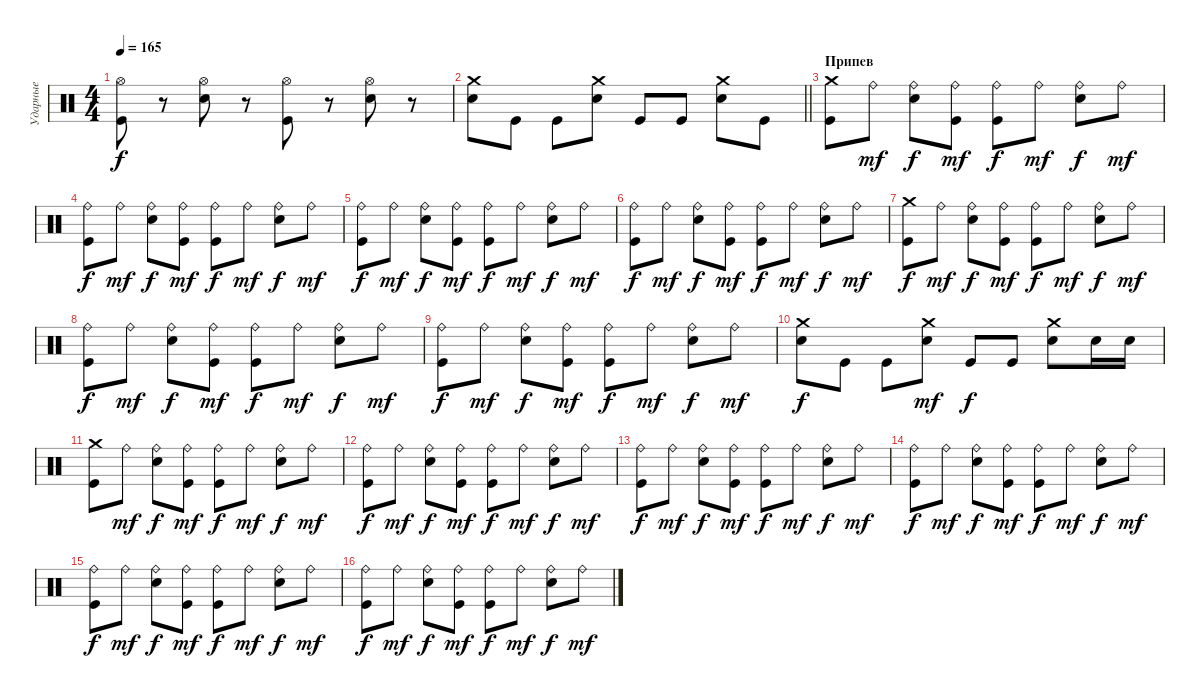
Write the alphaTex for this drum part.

\track ("Ударные" "Ударные") {instrument percussion}
\staff {score}
\articulation defaults
\ts (4 4)
\tempo 165
\clef neutral
\ks c
("Hi-Hat (open)" "Kick (hit)").8{dy f} r.8 ("Hi-Hat (open)" "Electric Snare (hit)").8 r.8 ("Hi-Hat (open)" "Kick (hit)").8 r.8 ("Hi-Hat (open)" "Electric Snare (hit)").8 r.8 |
\barLineRight lightlight
("Crash medium (hit)" "Electric Snare (hit)").8 "Kick (hit)".8 "Kick (hit)".8 ("Crash medium (hit)" "Electric Snare (hit)").8 "Kick (hit)".8 "Kick (hit)".8 ("Crash medium (hit)" "Electric Snare (hit)").8 "Kick (hit)".8 |
\section ("" "Припев")
("Crash medium (hit)" "Kick (hit)").8 "Ride (bell)".8{dy mf} ("Ride (bell)" "Electric Snare (hit)").8{dy f} ("Ride (bell)" "Kick (hit)").8{dy mf} ("Ride (bell)" "Kick (hit)").8{dy f} "Ride (bell)".8{dy mf} ("Ride (bell)" "Electric Snare (hit)").8{dy f} "Ride (bell)".8{dy mf} |
("Ride (bell)" "Kick (hit)").8{dy f} "Ride (bell)".8{dy mf} ("Ride (bell)" "Electric Snare (hit)").8{dy f} ("Ride (bell)" "Kick (hit)").8{dy mf} ("Ride (bell)" "Kick (hit)").8{dy f} "Ride (bell)".8{dy mf} ("Ride (bell)" "Electric Snare (hit)").8{dy f} "Ride (bell)".8{dy mf} |
("Ride (bell)" "Kick (hit)").8{dy f} "Ride (bell)".8{dy mf} ("Ride (bell)" "Electric Snare (hit)").8{dy f} ("Ride (bell)" "Kick (hit)").8{dy mf} ("Ride (bell)" "Kick (hit)").8{dy f} "Ride (bell)".8{dy mf} ("Ride (bell)" "Electric Snare (hit)").8{dy f} "Ride (bell)".8{dy mf} |
("Ride (bell)" "Kick (hit)").8{dy f} "Ride (bell)".8{dy mf} ("Ride (bell)" "Electric Snare (hit)").8{dy f} ("Ride (bell)" "Kick (hit)").8{dy mf} ("Ride (bell)" "Kick (hit)").8{dy f} "Ride (bell)".8{dy mf} ("Ride (bell)" "Electric Snare (hit)").8{dy f} "Ride (bell)".8{dy mf} |
("Crash medium (hit)" "Kick (hit)").8{dy f} "Ride (bell)".8{dy mf} ("Ride (bell)" "Electric Snare (hit)").8{dy f} ("Ride (bell)" "Kick (hit)").8{dy mf} ("Ride (bell)" "Kick (hit)").8{dy f} "Ride (bell)".8{dy mf} ("Ride (bell)" "Electric Snare (hit)").8{dy f} "Ride (bell)".8{dy mf} |
("Ride (bell)" "Kick (hit)").8{dy f} "Ride (bell)".8{dy mf} ("Ride (bell)" "Electric Snare (hit)").8{dy f} ("Ride (bell)" "Kick (hit)").8{dy mf} ("Ride (bell)" "Kick (hit)").8{dy f} "Ride (bell)".8{dy mf} ("Ride (bell)" "Electric Snare (hit)").8{dy f} "Ride (bell)".8{dy mf} |
("Ride (bell)" "Kick (hit)").8{dy f} "Ride (bell)".8{dy mf} ("Ride (bell)" "Electric Snare (hit)").8{dy f} ("Ride (bell)" "Kick (hit)").8{dy mf} ("Ride (bell)" "Kick (hit)").8{dy f} "Ride (bell)".8{dy mf} ("Ride (bell)" "Electric Snare (hit)").8{dy f} "Ride (bell)".8{dy mf} |
("Crash medium (hit)" "Electric Snare (hit)").8{dy f} "Kick (hit)".8 "Kick (hit)".8 ("Crash medium (hit)" "Electric Snare (hit)").8{dy mf} "Kick (hit)".8{dy f} "Kick (hit)".8 ("Crash medium (hit)" "Electric Snare (hit)").8 "Electric Snare (hit)".16 "Electric Snare (hit)".16 |
("Crash medium (hit)" "Kick (hit)").8 "Ride (bell)".8{dy mf} ("Ride (bell)" "Electric Snare (hit)").8{dy f} ("Ride (bell)" "Kick (hit)").8{dy mf} ("Ride (bell)" "Kick (hit)").8{dy f} "Ride (bell)".8{dy mf} ("Ride (bell)" "Electric Snare (hit)").8{dy f} "Ride (bell)".8{dy mf} |
("Ride (bell)" "Kick (hit)").8{dy f} "Ride (bell)".8{dy mf} ("Ride (bell)" "Electric Snare (hit)").8{dy f} ("Ride (bell)" "Kick (hit)").8{dy mf} ("Ride (bell)" "Kick (hit)").8{dy f} "Ride (bell)".8{dy mf} ("Ride (bell)" "Electric Snare (hit)").8{dy f} "Ride (bell)".8{dy mf} |
("Ride (bell)" "Kick (hit)").8{dy f} "Ride (bell)".8{dy mf} ("Ride (bell)" "Electric Snare (hit)").8{dy f} ("Ride (bell)" "Kick (hit)").8{dy mf} ("Ride (bell)" "Kick (hit)").8{dy f} "Ride (bell)".8{dy mf} ("Ride (bell)" "Electric Snare (hit)").8{dy f} "Ride (bell)".8{dy mf} |
("Ride (bell)" "Kick (hit)").8{dy f} "Ride (bell)".8{dy mf} ("Ride (bell)" "Electric Snare (hit)").8{dy f} ("Ride (bell)" "Kick (hit)").8{dy mf} ("Ride (bell)" "Kick (hit)").8{dy f} "Ride (bell)".8{dy mf} ("Ride (bell)" "Electric Snare (hit)").8{dy f} "Ride (bell)".8{dy mf} |
("Ride (bell)" "Kick (hit)").8{dy f} "Ride (bell)".8{dy mf} ("Ride (bell)" "Electric Snare (hit)").8{dy f} ("Ride (bell)" "Kick (hit)").8{dy mf} ("Ride (bell)" "Kick (hit)").8{dy f} "Ride (bell)".8{dy mf} ("Ride (bell)" "Electric Snare (hit)").8{dy f} "Ride (bell)".8{dy mf} |
("Ride (bell)" "Kick (hit)").8{dy f} "Ride (bell)".8{dy mf} ("Ride (bell)" "Electric Snare (hit)").8{dy f} ("Ride (bell)" "Kick (hit)").8{dy mf} ("Ride (bell)" "Kick (hit)").8{dy f} "Ride (bell)".8{dy mf} ("Ride (bell)" "Electric Snare (hit)").8{dy f} "Ride (bell)".8{dy mf}
